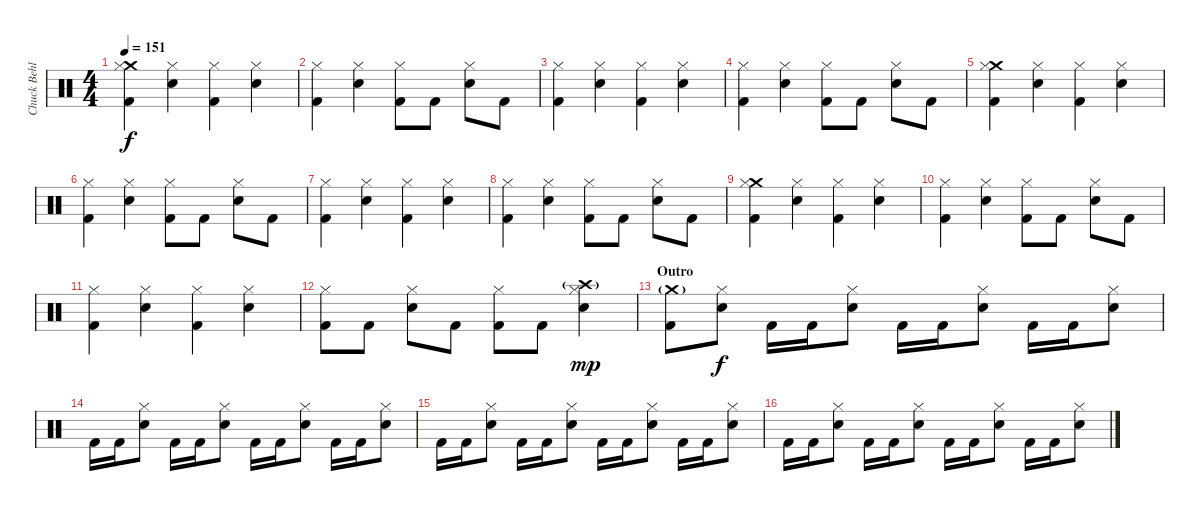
\track ("Chuck Behler" "Chuck Behl") {instrument percussion}
\staff {score}
\articulation defaults
\ts (4 4)
\tempo 151
\clef neutral
\ks c
("Crash medium (hit)" "Hi-Hat (closed)" "Kick (hit) 2").4{dy f} ("Hi-Hat (closed)" "Electric Snare (hit)").4 ("Hi-Hat (closed)" "Kick (hit) 2").4 ("Hi-Hat (closed)" "Electric Snare (hit)").4 |
("Hi-Hat (closed)" "Kick (hit) 2").4 ("Hi-Hat (closed)" "Electric Snare (hit)").4 ("Hi-Hat (closed)" "Kick (hit) 2").8 "Kick (hit) 2".8 ("Hi-Hat (closed)" "Electric Snare (hit)").8 "Kick (hit) 2".8 |
("Hi-Hat (closed)" "Kick (hit) 2").4 ("Hi-Hat (closed)" "Electric Snare (hit)").4 ("Hi-Hat (closed)" "Kick (hit) 2").4 ("Hi-Hat (closed)" "Electric Snare (hit)").4 |
("Hi-Hat (closed)" "Kick (hit) 2").4 ("Hi-Hat (closed)" "Electric Snare (hit)").4 ("Hi-Hat (closed)" "Kick (hit) 2").8 "Kick (hit) 2".8 ("Hi-Hat (closed)" "Electric Snare (hit)").8 "Kick (hit) 2".8 |
("Crash medium (hit)" "Hi-Hat (closed)" "Kick (hit) 2").4 ("Hi-Hat (closed)" "Electric Snare (hit)").4 ("Hi-Hat (closed)" "Kick (hit) 2").4 ("Hi-Hat (closed)" "Electric Snare (hit)").4 |
("Hi-Hat (closed)" "Kick (hit) 2").4 ("Hi-Hat (closed)" "Electric Snare (hit)").4 ("Hi-Hat (closed)" "Kick (hit) 2").8 "Kick (hit) 2".8 ("Hi-Hat (closed)" "Electric Snare (hit)").8 "Kick (hit) 2".8 |
("Hi-Hat (closed)" "Kick (hit) 2").4 ("Hi-Hat (closed)" "Electric Snare (hit)").4 ("Hi-Hat (closed)" "Kick (hit) 2").4 ("Hi-Hat (closed)" "Electric Snare (hit)").4 |
("Hi-Hat (closed)" "Kick (hit) 2").4 ("Hi-Hat (closed)" "Electric Snare (hit)").4 ("Hi-Hat (closed)" "Kick (hit) 2").8 "Kick (hit) 2".8 ("Hi-Hat (closed)" "Electric Snare (hit)").8 "Kick (hit) 2".8 |
("Crash medium (hit)" "Hi-Hat (closed)" "Kick (hit) 2").4 ("Hi-Hat (closed)" "Electric Snare (hit)").4 ("Hi-Hat (closed)" "Kick (hit) 2").4 ("Hi-Hat (closed)" "Electric Snare (hit)").4 |
("Hi-Hat (closed)" "Kick (hit) 2").4 ("Hi-Hat (closed)" "Electric Snare (hit)").4 ("Hi-Hat (closed)" "Kick (hit) 2").8 "Kick (hit) 2".8 ("Hi-Hat (closed)" "Electric Snare (hit)").8 "Kick (hit) 2".8 |
("Hi-Hat (closed)" "Kick (hit) 2").4 ("Hi-Hat (closed)" "Electric Snare (hit)").4 ("Hi-Hat (closed)" "Kick (hit) 2").4 ("Hi-Hat (closed)" "Electric Snare (hit)").4 |
("Hi-Hat (closed)" "Kick (hit) 2").8 "Kick (hit) 2".8 ("Hi-Hat (closed)" "Electric Snare (hit)").8 "Kick (hit) 2".8 ("Hi-Hat (closed)" "Kick (hit) 2").8 "Kick (hit) 2".8 ("Crash high (hit)"{g} "Hi-Hat (closed)" "Electric Snare (hit)").4{dy mp} |
\section ("" "Outro")
("Crash medium (hit)"{g} "Kick (hit) 2").8 ("Hi-Hat (closed)" "Electric Snare (hit)").8{dy f} "Kick (hit) 2".16 "Kick (hit) 2".16 ("Hi-Hat (closed)" "Electric Snare (hit)").8 "Kick (hit) 2".16 "Kick (hit) 2".16 ("Hi-Hat (closed)" "Electric Snare (hit)").8 "Kick (hit) 2".16 "Kick (hit) 2".16 ("Hi-Hat (closed)" "Electric Snare (hit)").8 |
"Kick (hit) 2".16 "Kick (hit) 2".16 ("Hi-Hat (closed)" "Electric Snare (hit)").8 "Kick (hit) 2".16 "Kick (hit) 2".16 ("Hi-Hat (closed)" "Electric Snare (hit)").8 "Kick (hit) 2".16 "Kick (hit) 2".16 ("Hi-Hat (closed)" "Electric Snare (hit)").8 "Kick (hit) 2".16 "Kick (hit) 2".16 ("Hi-Hat (closed)" "Electric Snare (hit)").8 |
"Kick (hit) 2".16 "Kick (hit) 2".16 ("Hi-Hat (closed)" "Electric Snare (hit)").8 "Kick (hit) 2".16 "Kick (hit) 2".16 ("Hi-Hat (closed)" "Electric Snare (hit)").8 "Kick (hit) 2".16 "Kick (hit) 2".16 ("Hi-Hat (closed)" "Electric Snare (hit)").8 "Kick (hit) 2".16 "Kick (hit) 2".16 ("Hi-Hat (closed)" "Electric Snare (hit)").8 |
"Kick (hit) 2".16 "Kick (hit) 2".16 ("Hi-Hat (closed)" "Electric Snare (hit)").8 "Kick (hit) 2".16 "Kick (hit) 2".16 ("Hi-Hat (closed)" "Electric Snare (hit)").8 "Kick (hit) 2".16 "Kick (hit) 2".16 ("Hi-Hat (closed)" "Electric Snare (hit)").8 "Kick (hit) 2".16 "Kick (hit) 2".16 ("Hi-Hat (closed)" "Electric Snare (hit)").8
